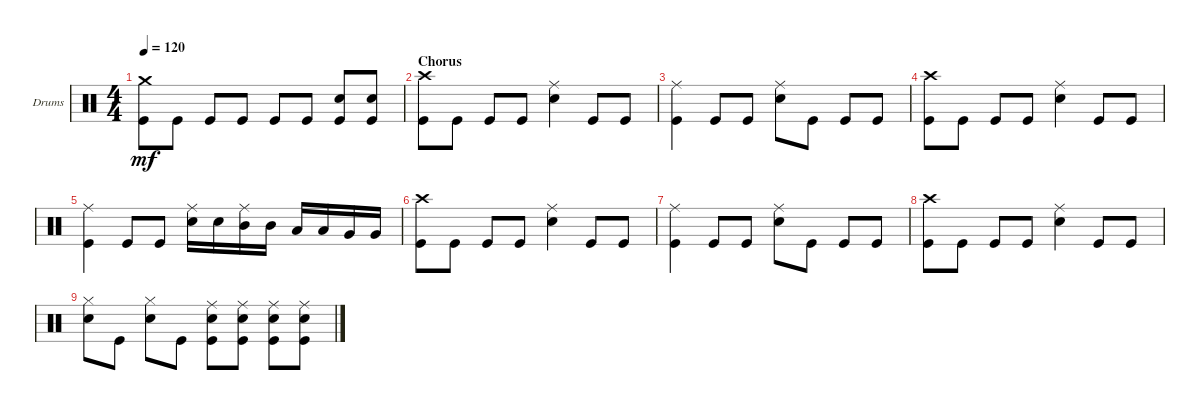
\defaultSystemsLayout 4
\bracketExtendMode groupsimilarinstruments
\firstSystemTrackNameOrientation horizontal
\otherSystemsTrackNameOrientation horizontal
\track ("Drumkit" "Drums") {instrument percussion}
\staff {score}
\articulation defaults
\ts (4 4)
\tempo 120
\clef neutral
\ks c
("Kick (hit)" "Crash medium (hit)").8{dy mf} "Kick (hit)".8 "Kick (hit)".8 "Kick (hit)".8 "Kick (hit)".8 "Kick (hit)".8 ("Kick (hit)" "Snare (hit) 2").8 ("Kick (hit)" "Snare (hit) 2").8 |
\section ("" "Chorus")
("Crash high (hit)" "Kick (hit)").8 "Kick (hit)".8 "Kick (hit)".8 "Kick (hit)".8 ("Snare (hit) 2" "Ride (middle)").4 "Kick (hit)".8 "Kick (hit)".8 |
("Kick (hit)" "Ride (middle)").4 "Kick (hit)".8 "Kick (hit)".8 ("Ride (middle)" "Snare (hit) 2").8 "Kick (hit)".8 "Kick (hit)".8 "Kick (hit)".8 |
("Crash high (hit)" "Kick (hit)").8 "Kick (hit)".8 "Kick (hit)".8 "Kick (hit)".8 ("Snare (hit) 2" "Ride (middle)").4 "Kick (hit)".8 "Kick (hit)".8 |
("Kick (hit)" "Ride (middle)").4 "Kick (hit)".8 "Kick (hit)".8 ("Snare (hit) 2" "Ride (middle)").16 "Snare (hit) 2".16 ("Ride (middle)" "Mid Tom (hit)").16 "Mid Tom (hit)".16 "Low Tom (hit)".16 "Low Tom (hit)".16 "Very Low Tom (hit)".16 "Very Low Tom (hit)".16 |
("Crash high (hit)" "Kick (hit)").8 "Kick (hit)".8 "Kick (hit)".8 "Kick (hit)".8 ("Snare (hit) 2" "Ride (middle)").4 "Kick (hit)".8 "Kick (hit)".8 |
("Kick (hit)" "Ride (middle)").4 "Kick (hit)".8 "Kick (hit)".8 ("Ride (middle)" "Snare (hit) 2").8 "Kick (hit)".8 "Kick (hit)".8 "Kick (hit)".8 |
("Crash high (hit)" "Kick (hit)").8 "Kick (hit)".8 "Kick (hit)".8 "Kick (hit)".8 ("Snare (hit) 2" "Ride (middle)").4 "Kick (hit)".8 "Kick (hit)".8 |
("Snare (hit) 2" "Hi-Hat (closed)").8 "Kick (hit)".8 ("Snare (hit) 2" "Hi-Hat (closed)").8 "Kick (hit)".8 ("Kick (hit)" "Snare (hit) 2" "Ride (middle)").8 ("Kick (hit)" "Snare (hit) 2" "Ride (middle)").8 ("Kick (hit)" "Snare (hit) 2" "Ride (middle)").8 ("Kick (hit)" "Snare (hit) 2" "Ride (middle)").8
